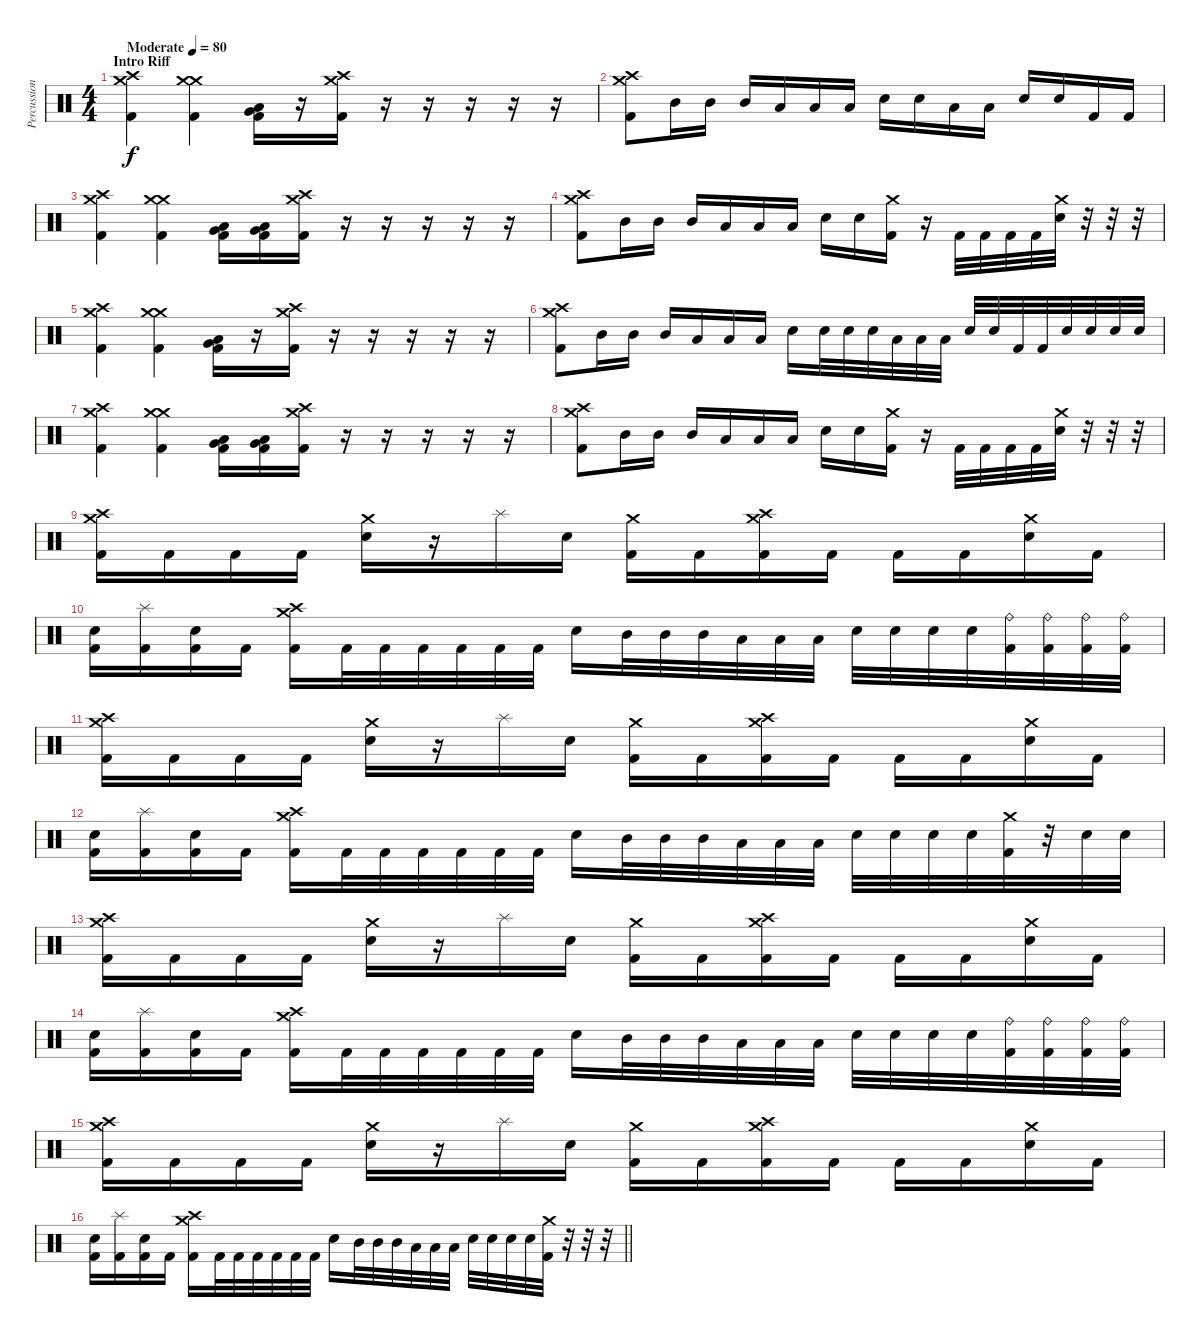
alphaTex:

\track ("Percussion" "Percussion") {instrument percussion}
\staff {score}
\articulation defaults
\ts (4 4)
\section ("" "Intro Riff")
\tempo (80 "Moderate")
\clef neutral
\ks c
("Crash medium (hit)" "Crash high (hit)" "Kick (hit) 2").4{dy f} ("Crash medium (hit)" "Crash medium (hit)" "Kick (hit) 2").4 ("Low Floor Tom (hit)" "Very Low Tom (hit)" "Kick (hit) 2").16 r.16 ("Crash high (hit)" "Crash medium (hit)" "Kick (hit) 2").16 r.16 r.16 r.16 r.16 r.16 |
("Crash high (hit)" "Crash medium (hit)" "Kick (hit) 2").8 "Mid Tom (hit)".16 "Mid Tom (hit)".16 "Mid Tom (hit)".16 "Low Tom (hit)".16 "Low Tom (hit)".16 "Low Tom (hit)".16 "Snare (hit) 2".16 "Snare (hit) 2".16 "Low Tom (hit)".16 "Low Tom (hit)".16 "Snare (hit) 2".16 "Snare (hit) 2".16 "Kick (hit) 2".16 "Kick (hit) 2".16 |
("Crash medium (hit)" "Crash high (hit)" "Kick (hit) 2").4 ("Crash medium (hit)" "Crash medium (hit)" "Kick (hit) 2").4 ("Low Floor Tom (hit)" "Very Low Tom (hit)" "Kick (hit) 2").16 ("Low Floor Tom (hit)" "Very Low Tom (hit)" "Kick (hit) 2").16 ("Crash high (hit)" "Crash medium (hit)" "Kick (hit) 2").16 r.16 r.16 r.16 r.16 r.16 |
("Crash high (hit)" "Crash medium (hit)" "Kick (hit) 2").8 "Mid Tom (hit)".16 "Mid Tom (hit)".16 "Mid Tom (hit)".16 "Low Tom (hit)".16 "Low Tom (hit)".16 "Low Tom (hit)".16 "Snare (hit) 2".16 "Snare (hit) 2".16 ("Crash medium (hit)" "Kick (hit) 2").16 r.16 "Kick (hit) 2".32 "Kick (hit) 2".32 "Kick (hit) 2".32 "Kick (hit) 2".32 ("Crash medium (hit)" "Snare (hit) 2").32 r.32 r.32 r.32 |
("Crash medium (hit)" "Crash high (hit)" "Kick (hit) 2").4 ("Crash medium (hit)" "Crash medium (hit)" "Kick (hit) 2").4 ("Low Floor Tom (hit)" "Very Low Tom (hit)" "Kick (hit) 2").16 r.16 ("Crash high (hit)" "Crash medium (hit)" "Kick (hit) 2").16 r.16 r.16 r.16 r.16 r.16 |
("Crash high (hit)" "Crash medium (hit)" "Kick (hit) 2").8 "Mid Tom (hit)".16 "Mid Tom (hit)".16 "Mid Tom (hit)".16 "Low Tom (hit)".16 "Low Tom (hit)".16 "Low Tom (hit)".16 "Snare (hit) 2".16 "Snare (hit) 2".32 "Snare (hit) 2".32 "Snare (hit) 2".32 "Low Tom (hit)".32 "Low Tom (hit)".32 "Low Tom (hit)".32 "Snare (hit) 2".32 "Snare (hit) 2".32 "Kick (hit) 2".32 "Kick (hit) 2".32 "Snare (hit) 2".32 "Snare (hit) 2".32 "Snare (hit) 2".32 "Snare (hit) 2".32 |
("Crash medium (hit)" "Crash high (hit)" "Kick (hit) 2").4 ("Crash medium (hit)" "Crash medium (hit)" "Kick (hit) 2").4 ("Low Floor Tom (hit)" "Very Low Tom (hit)" "Kick (hit) 2").16 ("Low Floor Tom (hit)" "Very Low Tom (hit)" "Kick (hit) 2").16 ("Crash high (hit)" "Crash medium (hit)" "Kick (hit) 2").16 r.16 r.16 r.16 r.16 r.16 |
("Crash high (hit)" "Crash medium (hit)" "Kick (hit) 2").8 "Mid Tom (hit)".16 "Mid Tom (hit)".16 "Mid Tom (hit)".16 "Low Tom (hit)".16 "Low Tom (hit)".16 "Low Tom (hit)".16 "Snare (hit) 2".16 "Snare (hit) 2".16 ("Crash medium (hit)" "Kick (hit) 2").16 r.16 "Kick (hit) 2".32 "Kick (hit) 2".32 "Kick (hit) 2".32 "Kick (hit) 2".32 ("Crash medium (hit)" "Snare (hit) 2").32 r.32 r.32 r.32 |
("Crash high (hit)" "Crash medium (hit)" "Kick (hit) 2").16 "Kick (hit) 2".16 "Kick (hit) 2".16 "Kick (hit) 2".16 ("Crash medium (hit)" "Snare (hit) 2").16 r.16 "Splash (hit)".16 "Snare (hit) 2".16 ("Crash medium (hit)" "Kick (hit) 2").16 "Kick (hit) 2".16 ("Crash high (hit)" "Crash medium (hit)" "Kick (hit) 2").16 "Kick (hit) 2".16 "Kick (hit) 2".16 "Kick (hit) 2".16 ("Crash medium (hit)" "Snare (hit) 2").16 "Kick (hit) 2".16 |
("Snare (hit) 2" "Kick (hit) 2").16 ("Splash (hit)" "Kick (hit) 2").16 ("Snare (hit) 2" "Kick (hit) 2").16 "Kick (hit) 2".16 ("Crash high (hit)" "Crash medium (hit)" "Kick (hit) 2").16 "Kick (hit) 2".32 "Kick (hit) 2".32 "Kick (hit) 2".32 "Kick (hit) 2".32 "Kick (hit) 2".32 "Kick (hit) 2".32 "Snare (hit) 2".16 "Mid Tom (hit)".32 "Mid Tom (hit)".32 "Mid Tom (hit)".32 "Low Tom (hit)".32 "Low Tom (hit)".32 "Low Tom (hit)".32 "Snare (hit) 2".32 "Snare (hit) 2".32 "Snare (hit) 2".32 "Snare (hit) 2".32 ("Ride (bell)" "Kick (hit) 2").32 ("Ride (bell)" "Kick (hit) 2").32 ("Ride (bell)" "Kick (hit) 2").32 ("Ride (bell)" "Kick (hit) 2").32 |
("Crash high (hit)" "Crash medium (hit)" "Kick (hit) 2").16 "Kick (hit) 2".16 "Kick (hit) 2".16 "Kick (hit) 2".16 ("Crash medium (hit)" "Snare (hit) 2").16 r.16 "Splash (hit)".16 "Snare (hit) 2".16 ("Crash medium (hit)" "Kick (hit) 2").16 "Kick (hit) 2".16 ("Crash high (hit)" "Crash medium (hit)" "Kick (hit) 2").16 "Kick (hit) 2".16 "Kick (hit) 2".16 "Kick (hit) 2".16 ("Crash medium (hit)" "Snare (hit) 2").16 "Kick (hit) 2".16 |
("Snare (hit) 2" "Kick (hit) 2").16 ("Splash (hit)" "Kick (hit) 2").16 ("Snare (hit) 2" "Kick (hit) 2").16 "Kick (hit) 2".16 ("Crash high (hit)" "Crash medium (hit)" "Kick (hit) 2").16 "Kick (hit) 2".32 "Kick (hit) 2".32 "Kick (hit) 2".32 "Kick (hit) 2".32 "Kick (hit) 2".32 "Kick (hit) 2".32 "Snare (hit) 2".16 "Mid Tom (hit)".32 "Mid Tom (hit)".32 "Mid Tom (hit)".32 "Low Tom (hit)".32 "Low Tom (hit)".32 "Low Tom (hit)".32 "Snare (hit) 2".32 "Snare (hit) 2".32 "Snare (hit) 2".32 "Snare (hit) 2".32 ("Crash medium (hit)" "Kick (hit) 2").32 r.32 "Snare (hit) 2".32 "Snare (hit) 2".32 |
("Crash high (hit)" "Crash medium (hit)" "Kick (hit) 2").16 "Kick (hit) 2".16 "Kick (hit) 2".16 "Kick (hit) 2".16 ("Crash medium (hit)" "Snare (hit) 2").16 r.16 "Splash (hit)".16 "Snare (hit) 2".16 ("Crash medium (hit)" "Kick (hit) 2").16 "Kick (hit) 2".16 ("Crash high (hit)" "Crash medium (hit)" "Kick (hit) 2").16 "Kick (hit) 2".16 "Kick (hit) 2".16 "Kick (hit) 2".16 ("Crash medium (hit)" "Snare (hit) 2").16 "Kick (hit) 2".16 |
("Snare (hit) 2" "Kick (hit) 2").16 ("Splash (hit)" "Kick (hit) 2").16 ("Snare (hit) 2" "Kick (hit) 2").16 "Kick (hit) 2".16 ("Crash high (hit)" "Crash medium (hit)" "Kick (hit) 2").16 "Kick (hit) 2".32 "Kick (hit) 2".32 "Kick (hit) 2".32 "Kick (hit) 2".32 "Kick (hit) 2".32 "Kick (hit) 2".32 "Snare (hit) 2".16 "Mid Tom (hit)".32 "Mid Tom (hit)".32 "Mid Tom (hit)".32 "Low Tom (hit)".32 "Low Tom (hit)".32 "Low Tom (hit)".32 "Snare (hit) 2".32 "Snare (hit) 2".32 "Snare (hit) 2".32 "Snare (hit) 2".32 ("Ride (bell)" "Kick (hit) 2").32 ("Ride (bell)" "Kick (hit) 2").32 ("Ride (bell)" "Kick (hit) 2").32 ("Ride (bell)" "Kick (hit) 2").32 |
("Crash high (hit)" "Crash medium (hit)" "Kick (hit) 2").16 "Kick (hit) 2".16 "Kick (hit) 2".16 "Kick (hit) 2".16 ("Crash medium (hit)" "Snare (hit) 2").16 r.16 "Splash (hit)".16 "Snare (hit) 2".16 ("Crash medium (hit)" "Kick (hit) 2").16 "Kick (hit) 2".16 ("Crash high (hit)" "Crash medium (hit)" "Kick (hit) 2").16 "Kick (hit) 2".16 "Kick (hit) 2".16 "Kick (hit) 2".16 ("Crash medium (hit)" "Snare (hit) 2").16 "Kick (hit) 2".16 |
\barLineRight lightlight
("Snare (hit) 2" "Kick (hit) 2").16 ("Splash (hit)" "Kick (hit) 2").16 ("Snare (hit) 2" "Kick (hit) 2").16 "Kick (hit) 2".16 ("Crash high (hit)" "Crash medium (hit)" "Kick (hit) 2").16 "Kick (hit) 2".32 "Kick (hit) 2".32 "Kick (hit) 2".32 "Kick (hit) 2".32 "Kick (hit) 2".32 "Kick (hit) 2".32 "Snare (hit) 2".16 "Mid Tom (hit)".32 "Mid Tom (hit)".32 "Mid Tom (hit)".32 "Low Tom (hit)".32 "Low Tom (hit)".32 "Low Tom (hit)".32 "Snare (hit) 2".32 "Snare (hit) 2".32 "Snare (hit) 2".32 "Snare (hit) 2".32 ("Crash medium (hit)" "Kick (hit) 2").32 r.32 r.32 r.32
